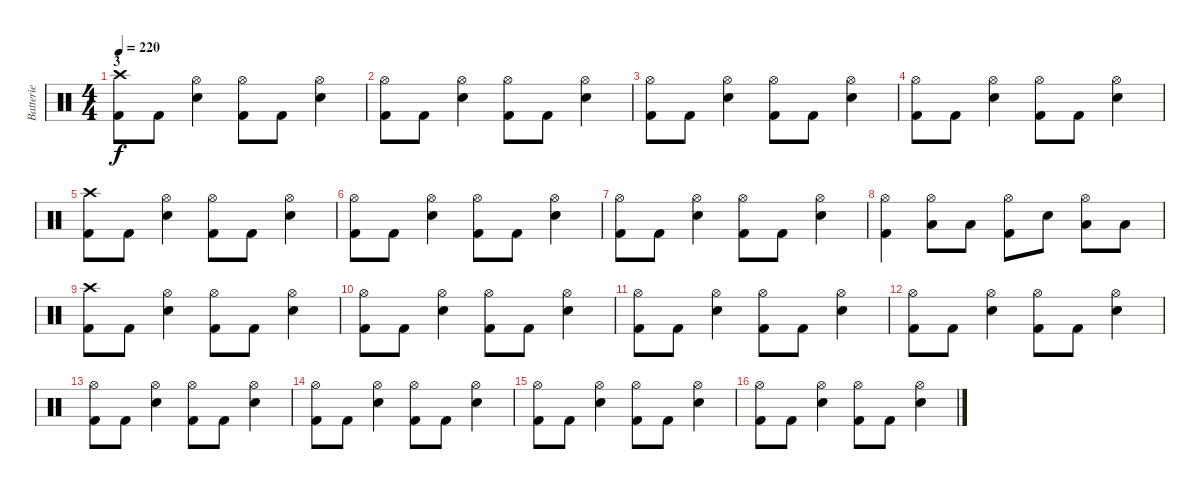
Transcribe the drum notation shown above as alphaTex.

\track ("Batterie" "Batterie") {instrument percussion}
\staff {score}
\articulation defaults
\ts (4 4)
\section ("" "3")
\tempo 220
\clef neutral
\ks c
("Crash high (hit)" "Kick (hit) 2").8{dy f} "Kick (hit) 2".8 ("Hi-Hat (open)" "Electric Snare (hit)").4 ("Hi-Hat (open)" "Kick (hit) 2").8 "Kick (hit) 2".8 ("Hi-Hat (open)" "Electric Snare (hit)").4 |
("Hi-Hat (open)" "Kick (hit) 2").8 "Kick (hit) 2".8 ("Hi-Hat (open)" "Electric Snare (hit)").4 ("Hi-Hat (open)" "Kick (hit) 2").8 "Kick (hit) 2".8 ("Hi-Hat (open)" "Electric Snare (hit)").4 |
("Hi-Hat (open)" "Kick (hit) 2").8 "Kick (hit) 2".8 ("Hi-Hat (open)" "Electric Snare (hit)").4 ("Hi-Hat (open)" "Kick (hit) 2").8 "Kick (hit) 2".8 ("Hi-Hat (open)" "Electric Snare (hit)").4 |
("Hi-Hat (open)" "Kick (hit) 2").8 "Kick (hit) 2".8 ("Hi-Hat (open)" "Electric Snare (hit)").4 ("Hi-Hat (open)" "Kick (hit) 2").8 "Kick (hit) 2".8 ("Hi-Hat (open)" "Electric Snare (hit)").4 |
("Crash high (hit)" "Kick (hit) 2").8 "Kick (hit) 2".8 ("Hi-Hat (open)" "Electric Snare (hit)").4 ("Hi-Hat (open)" "Kick (hit) 2").8 "Kick (hit) 2".8 ("Hi-Hat (open)" "Electric Snare (hit)").4 |
("Hi-Hat (open)" "Kick (hit) 2").8 "Kick (hit) 2".8 ("Hi-Hat (open)" "Electric Snare (hit)").4 ("Hi-Hat (open)" "Kick (hit) 2").8 "Kick (hit) 2".8 ("Hi-Hat (open)" "Electric Snare (hit)").4 |
("Hi-Hat (open)" "Kick (hit) 2").8 "Kick (hit) 2".8 ("Hi-Hat (open)" "Electric Snare (hit)").4 ("Hi-Hat (open)" "Kick (hit) 2").8 "Kick (hit) 2".8 ("Hi-Hat (open)" "Electric Snare (hit)").4 |
("Hi-Hat (open)" "Kick (hit) 2").4 ("Hi-Hat (open)" "Low Tom (hit)").8 "Low Tom (hit)".8 ("Hi-Hat (open)" "Kick (hit) 2").8 "Electric Snare (hit)".8 ("Hi-Hat (open)" "Low Tom (hit)").8 "Low Floor Tom (hit)".8 |
("Crash high (hit)" "Kick (hit) 2").8 "Kick (hit) 2".8 ("Hi-Hat (open)" "Electric Snare (hit)").4 ("Hi-Hat (open)" "Kick (hit) 2").8 "Kick (hit) 2".8 ("Hi-Hat (open)" "Electric Snare (hit)").4 |
("Hi-Hat (open)" "Kick (hit) 2").8 "Kick (hit) 2".8 ("Hi-Hat (open)" "Electric Snare (hit)").4 ("Hi-Hat (open)" "Kick (hit) 2").8 "Kick (hit) 2".8 ("Hi-Hat (open)" "Electric Snare (hit)").4 |
("Hi-Hat (open)" "Kick (hit) 2").8 "Kick (hit) 2".8 ("Hi-Hat (open)" "Electric Snare (hit)").4 ("Hi-Hat (open)" "Kick (hit) 2").8 "Kick (hit) 2".8 ("Hi-Hat (open)" "Electric Snare (hit)").4 |
("Hi-Hat (open)" "Kick (hit) 2").8 "Kick (hit) 2".8 ("Hi-Hat (open)" "Electric Snare (hit)").4 ("Hi-Hat (open)" "Kick (hit) 2").8 "Kick (hit) 2".8 ("Hi-Hat (open)" "Electric Snare (hit)").4 |
("Hi-Hat (open)" "Kick (hit) 2").8 "Kick (hit) 2".8 ("Hi-Hat (open)" "Electric Snare (hit)").4 ("Hi-Hat (open)" "Kick (hit) 2").8 "Kick (hit) 2".8 ("Hi-Hat (open)" "Electric Snare (hit)").4 |
("Hi-Hat (open)" "Kick (hit) 2").8 "Kick (hit) 2".8 ("Hi-Hat (open)" "Electric Snare (hit)").4 ("Hi-Hat (open)" "Kick (hit) 2").8 "Kick (hit) 2".8 ("Hi-Hat (open)" "Electric Snare (hit)").4 |
("Hi-Hat (open)" "Kick (hit) 2").8 "Kick (hit) 2".8 ("Hi-Hat (open)" "Electric Snare (hit)").4 ("Hi-Hat (open)" "Kick (hit) 2").8 "Kick (hit) 2".8 ("Hi-Hat (open)" "Electric Snare (hit)").4 |
("Hi-Hat (open)" "Kick (hit) 2").8 "Kick (hit) 2".8 ("Hi-Hat (open)" "Electric Snare (hit)").4 ("Hi-Hat (open)" "Kick (hit) 2").8 "Kick (hit) 2".8 ("Hi-Hat (open)" "Electric Snare (hit)").4
